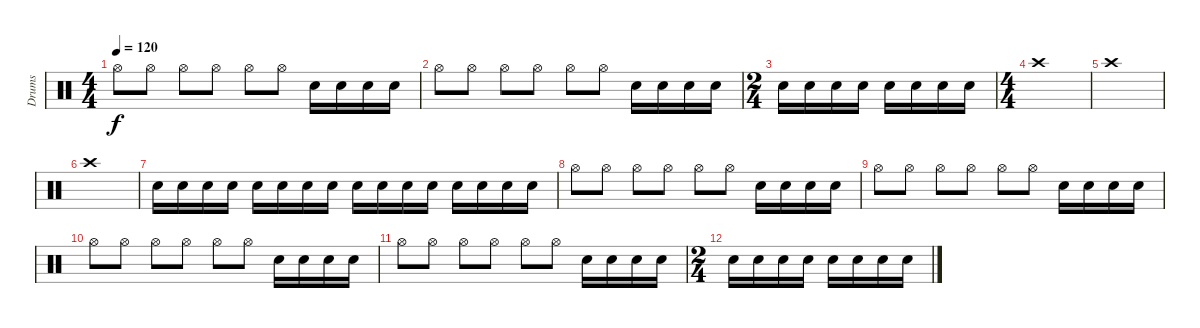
\track ("Drums" "Drums") {instrument percussion}
\staff {score}
\articulation defaults
\ts (4 4)
\tempo 120
\clef neutral
\ks c "Hi-Hat (open)".8{dy f} "Hi-Hat (open)".8 "Hi-Hat (open)".8 "Hi-Hat (open)".8 "Hi-Hat (open)".8 "Hi-Hat (open)".8 "Electric Snare (hit)".16 "Electric Snare (hit)".16 "Electric Snare (hit)".16 "Electric Snare (hit)".16
|
"Hi-Hat (open)".8 "Hi-Hat (open)".8 "Hi-Hat (open)".8 "Hi-Hat (open)".8 "Hi-Hat (open)".8 "Hi-Hat (open)".8 "Electric Snare (hit)".16 "Electric Snare (hit)".16 "Electric Snare (hit)".16 "Electric Snare (hit)".16 |
\ts (2 4)
"Electric Snare (hit)".16 "Electric Snare (hit)".16 "Electric Snare (hit)".16 "Electric Snare (hit)".16 "Electric Snare (hit)".16 "Electric Snare (hit)".16 "Electric Snare (hit)".16 "Electric Snare (hit)".16 |
\ts (4 4)
"Crash high (hit)".1 |
"Crash high (hit)".1 |
"Crash high (hit)".1 |
"Electric Snare (hit)".16 "Electric Snare (hit)".16 "Electric Snare (hit)".16 "Electric Snare (hit)".16 "Electric Snare (hit)".16 "Electric Snare (hit)".16 "Electric Snare (hit)".16 "Electric Snare (hit)".16 "Electric Snare (hit)".16 "Electric Snare (hit)".16 "Electric Snare (hit)".16 "Electric Snare (hit)".16 "Electric Snare (hit)".16 "Electric Snare (hit)".16 "Electric Snare (hit)".16 "Electric Snare (hit)".16 |
"Hi-Hat (open)".8 "Hi-Hat (open)".8 "Hi-Hat (open)".8 "Hi-Hat (open)".8 "Hi-Hat (open)".8 "Hi-Hat (open)".8 "Electric Snare (hit)".16 "Electric Snare (hit)".16 "Electric Snare (hit)".16 "Electric Snare (hit)".16 |
"Hi-Hat (open)".8 "Hi-Hat (open)".8 "Hi-Hat (open)".8 "Hi-Hat (open)".8 "Hi-Hat (open)".8 "Hi-Hat (open)".8 "Electric Snare (hit)".16 "Electric Snare (hit)".16 "Electric Snare (hit)".16 "Electric Snare (hit)".16 |
"Hi-Hat (open)".8 "Hi-Hat (open)".8 "Hi-Hat (open)".8 "Hi-Hat (open)".8 "Hi-Hat (open)".8 "Hi-Hat (open)".8 "Electric Snare (hit)".16 "Electric Snare (hit)".16 "Electric Snare (hit)".16 "Electric Snare (hit)".16 |
"Hi-Hat (open)".8 "Hi-Hat (open)".8 "Hi-Hat (open)".8 "Hi-Hat (open)".8 "Hi-Hat (open)".8 "Hi-Hat (open)".8 "Electric Snare (hit)".16 "Electric Snare (hit)".16 "Electric Snare (hit)".16 "Electric Snare (hit)".16 |
\ts (2 4)
"Electric Snare (hit)".16 "Electric Snare (hit)".16 "Electric Snare (hit)".16 "Electric Snare (hit)".16 "Electric Snare (hit)".16 "Electric Snare (hit)".16 "Electric Snare (hit)".16 "Electric Snare (hit)".16
